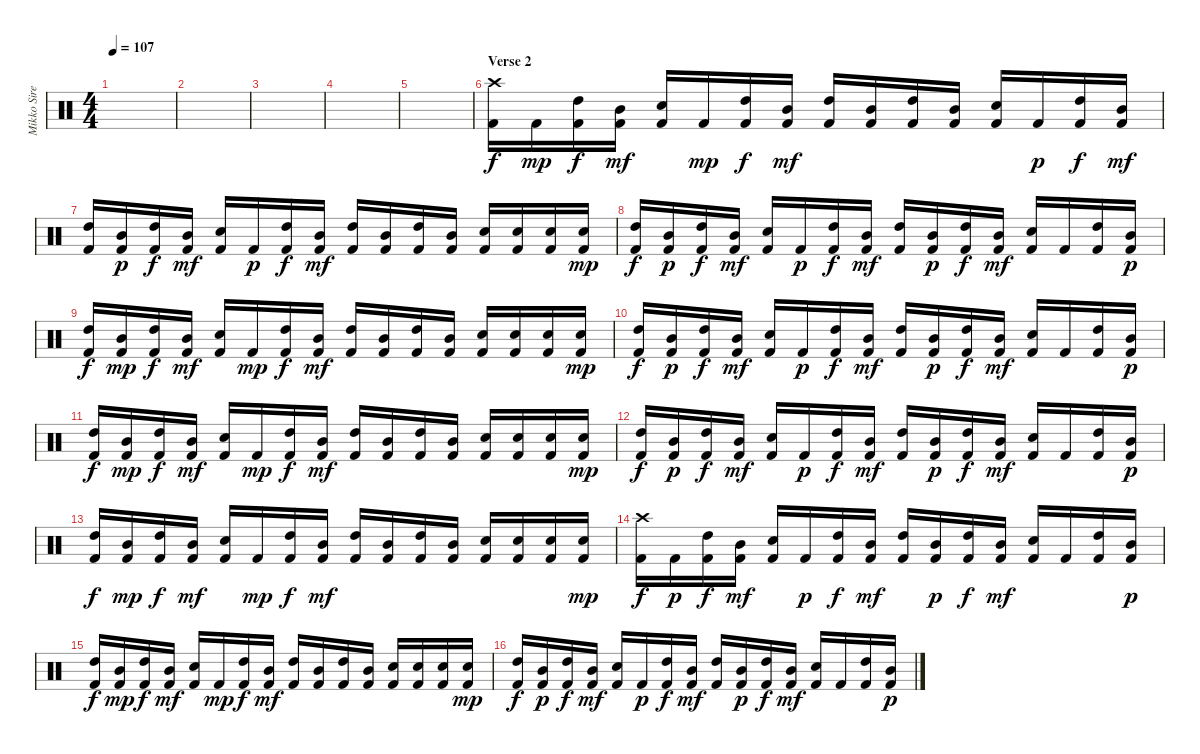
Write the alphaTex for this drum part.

\track ("Mikko Siren" "Mikko Sire") {instrument percussion}
\staff {score}
\articulation defaults
\ts (4 4)
\tempo 107
\clef neutral
\ks c
|
|
|
|
|
\section ("" "Verse 2")
("Kick (hit) 2" "Crash high (hit)").16{dy f balance 0} "Kick (hit) 2".16{dy mp} ("Kick (hit) 2" "High Tom (hit)").16{dy f} ("Kick (hit) 2" "Mid Tom (hit)").16{dy mf} ("Kick (hit) 2" "Electric Snare (hit)").16 "Kick (hit) 2".16{dy mp} ("Kick (hit) 2" "High Tom (hit)").16{dy f} ("Kick (hit) 2" "Mid Tom (hit)").16{dy mf} ("Kick (hit) 2" "High Tom (hit)").16 ("Kick (hit) 2" "Mid Tom (hit)").16 ("Kick (hit) 2" "High Tom (hit)").16 ("Kick (hit) 2" "Mid Tom (hit)").16 ("Kick (hit) 2" "Electric Snare (hit)").16 "Kick (hit) 2".16{dy p} ("Kick (hit) 2" "High Tom (hit)").16{dy f} ("Kick (hit) 2" "Mid Tom (hit)").16{dy mf} |
("Kick (hit) 2" "High Tom (hit)").16 ("Kick (hit) 2" "Mid Tom (hit)").16{dy p} ("Kick (hit) 2" "High Tom (hit)").16{dy f} ("Kick (hit) 2" "Mid Tom (hit)").16{dy mf} ("Kick (hit) 2" "Electric Snare (hit)").16 "Kick (hit) 2".16{dy p} ("Kick (hit) 2" "High Tom (hit)").16{dy f} ("Kick (hit) 2" "Mid Tom (hit)").16{dy mf} ("Kick (hit) 2" "High Tom (hit)").16 ("Kick (hit) 2" "Mid Tom (hit)").16 ("Kick (hit) 2" "High Tom (hit)").16 ("Kick (hit) 2" "Mid Tom (hit)").16 ("Kick (hit) 2" "Electric Snare (hit)").16 ("Kick (hit) 2" "Electric Snare (hit)").16 ("Kick (hit) 2" "Electric Snare (hit)").16 ("Kick (hit) 2" "Electric Snare (hit)").16{dy mp} |
("Kick (hit) 2" "High Tom (hit)").16{dy f} ("Kick (hit) 2" "Mid Tom (hit)").16{dy p} ("Kick (hit) 2" "High Tom (hit)").16{dy f} ("Kick (hit) 2" "Mid Tom (hit)").16{dy mf} ("Kick (hit) 2" "Electric Snare (hit)").16 "Kick (hit) 2".16{dy p} ("Kick (hit) 2" "High Tom (hit)").16{dy f} ("Kick (hit) 2" "Mid Tom (hit)").16{dy mf} ("Kick (hit) 2" "High Tom (hit)").16 ("Kick (hit) 2" "Mid Tom (hit)").16{dy p} ("Kick (hit) 2" "High Tom (hit)").16{dy f} ("Kick (hit) 2" "Mid Tom (hit)").16{dy mf} ("Kick (hit) 2" "Electric Snare (hit)").16 "Kick (hit) 2".16 ("Kick (hit) 2" "High Tom (hit)").16 ("Kick (hit) 2" "Mid Tom (hit)").16{dy p} |
("Kick (hit) 2" "High Tom (hit)").16{dy f} ("Kick (hit) 2" "Mid Tom (hit)").16{dy mp} ("Kick (hit) 2" "High Tom (hit)").16{dy f} ("Kick (hit) 2" "Mid Tom (hit)").16{dy mf} ("Kick (hit) 2" "Electric Snare (hit)").16 "Kick (hit) 2".16{dy mp} ("Kick (hit) 2" "High Tom (hit)").16{dy f} ("Kick (hit) 2" "Mid Tom (hit)").16{dy mf} ("Kick (hit) 2" "High Tom (hit)").16 ("Kick (hit) 2" "Mid Tom (hit)").16 ("Kick (hit) 2" "High Tom (hit)").16 ("Kick (hit) 2" "Mid Tom (hit)").16 ("Kick (hit) 2" "Electric Snare (hit)").16 ("Kick (hit) 2" "Electric Snare (hit)").16 ("Kick (hit) 2" "Electric Snare (hit)").16 ("Kick (hit) 2" "Electric Snare (hit)").16{dy mp} |
("Kick (hit) 2" "High Tom (hit)").16{dy f} ("Kick (hit) 2" "Mid Tom (hit)").16{dy p} ("Kick (hit) 2" "High Tom (hit)").16{dy f} ("Kick (hit) 2" "Mid Tom (hit)").16{dy mf} ("Kick (hit) 2" "Electric Snare (hit)").16 "Kick (hit) 2".16{dy p} ("Kick (hit) 2" "High Tom (hit)").16{dy f} ("Kick (hit) 2" "Mid Tom (hit)").16{dy mf} ("Kick (hit) 2" "High Tom (hit)").16 ("Kick (hit) 2" "Mid Tom (hit)").16{dy p} ("Kick (hit) 2" "High Tom (hit)").16{dy f} ("Kick (hit) 2" "Mid Tom (hit)").16{dy mf} ("Kick (hit) 2" "Electric Snare (hit)").16 "Kick (hit) 2".16 ("Kick (hit) 2" "High Tom (hit)").16 ("Kick (hit) 2" "Mid Tom (hit)").16{dy p} |
("Kick (hit) 2" "High Tom (hit)").16{dy f} ("Kick (hit) 2" "Mid Tom (hit)").16{dy mp} ("Kick (hit) 2" "High Tom (hit)").16{dy f} ("Kick (hit) 2" "Mid Tom (hit)").16{dy mf} ("Kick (hit) 2" "Electric Snare (hit)").16 "Kick (hit) 2".16{dy mp} ("Kick (hit) 2" "High Tom (hit)").16{dy f} ("Kick (hit) 2" "Mid Tom (hit)").16{dy mf} ("Kick (hit) 2" "High Tom (hit)").16 ("Kick (hit) 2" "Mid Tom (hit)").16 ("Kick (hit) 2" "High Tom (hit)").16 ("Kick (hit) 2" "Mid Tom (hit)").16 ("Kick (hit) 2" "Electric Snare (hit)").16 ("Kick (hit) 2" "Electric Snare (hit)").16 ("Kick (hit) 2" "Electric Snare (hit)").16 ("Kick (hit) 2" "Electric Snare (hit)").16{dy mp} |
("Kick (hit) 2" "High Tom (hit)").16{dy f} ("Kick (hit) 2" "Mid Tom (hit)").16{dy p} ("Kick (hit) 2" "High Tom (hit)").16{dy f} ("Kick (hit) 2" "Mid Tom (hit)").16{dy mf} ("Kick (hit) 2" "Electric Snare (hit)").16 "Kick (hit) 2".16{dy p} ("Kick (hit) 2" "High Tom (hit)").16{dy f} ("Kick (hit) 2" "Mid Tom (hit)").16{dy mf} ("Kick (hit) 2" "High Tom (hit)").16 ("Kick (hit) 2" "Mid Tom (hit)").16{dy p} ("Kick (hit) 2" "High Tom (hit)").16{dy f} ("Kick (hit) 2" "Mid Tom (hit)").16{dy mf} ("Kick (hit) 2" "Electric Snare (hit)").16 "Kick (hit) 2".16 ("Kick (hit) 2" "High Tom (hit)").16 ("Kick (hit) 2" "Mid Tom (hit)").16{dy p} |
("Kick (hit) 2" "High Tom (hit)").16{dy f} ("Kick (hit) 2" "Mid Tom (hit)").16{dy mp} ("Kick (hit) 2" "High Tom (hit)").16{dy f} ("Kick (hit) 2" "Mid Tom (hit)").16{dy mf} ("Kick (hit) 2" "Electric Snare (hit)").16 "Kick (hit) 2".16{dy mp} ("Kick (hit) 2" "High Tom (hit)").16{dy f} ("Kick (hit) 2" "Mid Tom (hit)").16{dy mf} ("Kick (hit) 2" "High Tom (hit)").16 ("Kick (hit) 2" "Mid Tom (hit)").16 ("Kick (hit) 2" "High Tom (hit)").16 ("Kick (hit) 2" "Mid Tom (hit)").16 ("Kick (hit) 2" "Electric Snare (hit)").16 ("Kick (hit) 2" "Electric Snare (hit)").16 ("Kick (hit) 2" "Electric Snare (hit)").16 ("Kick (hit) 2" "Electric Snare (hit)").16{dy mp} |
("Kick (hit) 2" "Crash high (hit)").16{dy f balance 8} "Kick (hit) 2".16{dy p} ("Kick (hit) 2" "High Tom (hit)").16{dy f} ("Kick (hit) 2" "Mid Tom (hit)").16{dy mf} ("Kick (hit) 2" "Electric Snare (hit)").16 "Kick (hit) 2".16{dy p} ("Kick (hit) 2" "High Tom (hit)").16{dy f} ("Kick (hit) 2" "Mid Tom (hit)").16{dy mf} ("Kick (hit) 2" "High Tom (hit)").16 ("Kick (hit) 2" "Mid Tom (hit)").16{dy p} ("Kick (hit) 2" "High Tom (hit)").16{dy f} ("Kick (hit) 2" "Mid Tom (hit)").16{dy mf} ("Kick (hit) 2" "Electric Snare (hit)").16 "Kick (hit) 2".16 ("Kick (hit) 2" "High Tom (hit)").16 ("Kick (hit) 2" "Mid Tom (hit)").16{dy p} |
("Kick (hit) 2" "High Tom (hit)").16{dy f} ("Kick (hit) 2" "Mid Tom (hit)").16{dy mp} ("Kick (hit) 2" "High Tom (hit)").16{dy f} ("Kick (hit) 2" "Mid Tom (hit)").16{dy mf} ("Kick (hit) 2" "Electric Snare (hit)").16 "Kick (hit) 2".16{dy mp} ("Kick (hit) 2" "High Tom (hit)").16{dy f} ("Kick (hit) 2" "Mid Tom (hit)").16{dy mf} ("Kick (hit) 2" "High Tom (hit)").16 ("Kick (hit) 2" "Mid Tom (hit)").16 ("Kick (hit) 2" "High Tom (hit)").16 ("Kick (hit) 2" "Mid Tom (hit)").16 ("Kick (hit) 2" "Electric Snare (hit)").16 ("Kick (hit) 2" "Electric Snare (hit)").16 ("Kick (hit) 2" "Electric Snare (hit)").16 ("Kick (hit) 2" "Electric Snare (hit)").16{dy mp} |
("Kick (hit) 2" "High Tom (hit)").16{dy f} ("Kick (hit) 2" "Mid Tom (hit)").16{dy p} ("Kick (hit) 2" "High Tom (hit)").16{dy f} ("Kick (hit) 2" "Mid Tom (hit)").16{dy mf} ("Kick (hit) 2" "Electric Snare (hit)").16 "Kick (hit) 2".16{dy p} ("Kick (hit) 2" "High Tom (hit)").16{dy f} ("Kick (hit) 2" "Mid Tom (hit)").16{dy mf} ("Kick (hit) 2" "High Tom (hit)").16 ("Kick (hit) 2" "Mid Tom (hit)").16{dy p} ("Kick (hit) 2" "High Tom (hit)").16{dy f} ("Kick (hit) 2" "Mid Tom (hit)").16{dy mf} ("Kick (hit) 2" "Electric Snare (hit)").16 "Kick (hit) 2".16 ("Kick (hit) 2" "High Tom (hit)").16 ("Kick (hit) 2" "Mid Tom (hit)").16{dy p}
